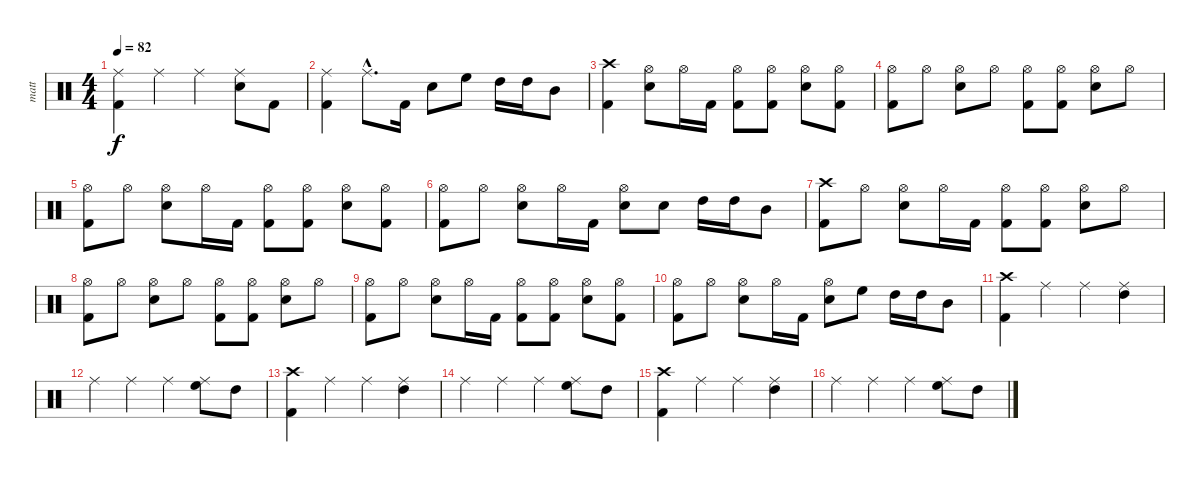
\track ("matt" "matt") {instrument percussion}
\staff {score}
\articulation defaults
\ts (4 4)
\tempo 82
\clef neutral
\ks c
("Ride (middle)" "Kick (hit) 2").4{dy f} "Ride (middle)".4 "Ride (middle)".4 ("Ride (middle)" "Electric Snare (hit)").8 "Kick (hit) 2".8 |
("Ride (middle)" "Kick (hit) 2").4 "Ride (middle)"{hac}.8{d} "Kick (hit) 2".16 "Electric Snare (hit)".8 "High Floor Tom (hit)".8 "High Tom (hit)".16 "High Tom (hit)".16 "Mid Tom (hit)".8 |
("Crash high (hit)" "Kick (hit) 2").4 ("Hi-Hat (open)" "Electric Snare (hit)").8 "Hi-Hat (open)".16 "Kick (hit) 2".16 ("Hi-Hat (open)" "Kick (hit) 2").8 ("Hi-Hat (open)" "Kick (hit) 2").8 ("Hi-Hat (open)" "Electric Snare (hit)").8 ("Hi-Hat (open)" "Kick (hit) 2").8 |
("Hi-Hat (open)" "Kick (hit) 2").8 "Hi-Hat (open)".8 ("Hi-Hat (open)" "Electric Snare (hit)").8 "Hi-Hat (open)".8 ("Hi-Hat (open)" "Kick (hit) 2").8 ("Hi-Hat (open)" "Kick (hit) 2").8 ("Hi-Hat (open)" "Electric Snare (hit)").8 "Hi-Hat (open)".8 |
("Hi-Hat (open)" "Kick (hit) 2").8 "Hi-Hat (open)".8 ("Hi-Hat (open)" "Electric Snare (hit)").8 "Hi-Hat (open)".16 "Kick (hit) 2".16 ("Hi-Hat (open)" "Kick (hit) 2").8 ("Hi-Hat (open)" "Kick (hit) 2").8 ("Hi-Hat (open)" "Electric Snare (hit)").8 ("Hi-Hat (open)" "Kick (hit) 2").8 |
("Hi-Hat (open)" "Kick (hit) 2").8 "Hi-Hat (open)".8 ("Hi-Hat (open)" "Electric Snare (hit)").8 "Hi-Hat (open)".16 "Kick (hit) 2".16 ("Hi-Hat (open)" "Electric Snare (hit)").8 "Electric Snare (hit)".8 "High Tom (hit)".16 "High Tom (hit)".16 "Mid Tom (hit)".8 |
("Crash high (hit)" "Kick (hit) 2").8 "Hi-Hat (open)".8 ("Hi-Hat (open)" "Electric Snare (hit)").8 "Hi-Hat (open)".16 "Kick (hit) 2".16 ("Hi-Hat (open)" "Kick (hit) 2").8 ("Hi-Hat (open)" "Kick (hit) 2").8 ("Hi-Hat (open)" "Electric Snare (hit)").8 "Hi-Hat (open)".8 |
("Hi-Hat (open)" "Kick (hit) 2").8 "Hi-Hat (open)".8 ("Hi-Hat (open)" "Electric Snare (hit)").8 "Hi-Hat (open)".8 ("Hi-Hat (open)" "Kick (hit) 2").8 ("Hi-Hat (open)" "Kick (hit) 2").8 ("Hi-Hat (open)" "Electric Snare (hit)").8 "Hi-Hat (open)".8 |
("Hi-Hat (open)" "Kick (hit) 2").8 "Hi-Hat (open)".8 ("Hi-Hat (open)" "Electric Snare (hit)").8 "Hi-Hat (open)".16 "Kick (hit) 2".16 ("Hi-Hat (open)" "Kick (hit) 2").8 ("Hi-Hat (open)" "Kick (hit) 2").8 ("Hi-Hat (open)" "Electric Snare (hit)").8 ("Hi-Hat (open)" "Kick (hit) 2").8 |
("Hi-Hat (open)" "Kick (hit) 2").8 "Hi-Hat (open)".8 ("Hi-Hat (open)" "Electric Snare (hit)").8 "Hi-Hat (open)".16 "Kick (hit) 2".16 ("Hi-Hat (open)" "Electric Snare (hit)").8 "High Floor Tom (hit)".8 "High Tom (hit)".16 "High Tom (hit)".16 "Mid Tom (hit)".8 |
("Crash high (hit)" "Kick (hit) 2").4 "Ride (middle)".4 "Ride (middle)".4 ("Ride (middle)" "High Tom (hit)").4 |
"Ride (middle)".4 "Ride (middle)".4 "Ride (middle)".4 ("Ride (middle)" "High Floor Tom (hit)").8 "High Tom (hit)".8 |
("Crash high (hit)" "Kick (hit) 2").4 "Ride (middle)".4 "Ride (middle)".4 ("Ride (middle)" "High Tom (hit)").4 |
"Ride (middle)".4 "Ride (middle)".4 "Ride (middle)".4 ("Ride (middle)" "High Floor Tom (hit)").8 "High Tom (hit)".8 |
("Crash high (hit)" "Kick (hit) 2").4 "Ride (middle)".4 "Ride (middle)".4 ("Ride (middle)" "High Tom (hit)").4 |
"Ride (middle)".4 "Ride (middle)".4 "Ride (middle)".4 ("Ride (middle)" "High Floor Tom (hit)").8 "High Tom (hit)".8
